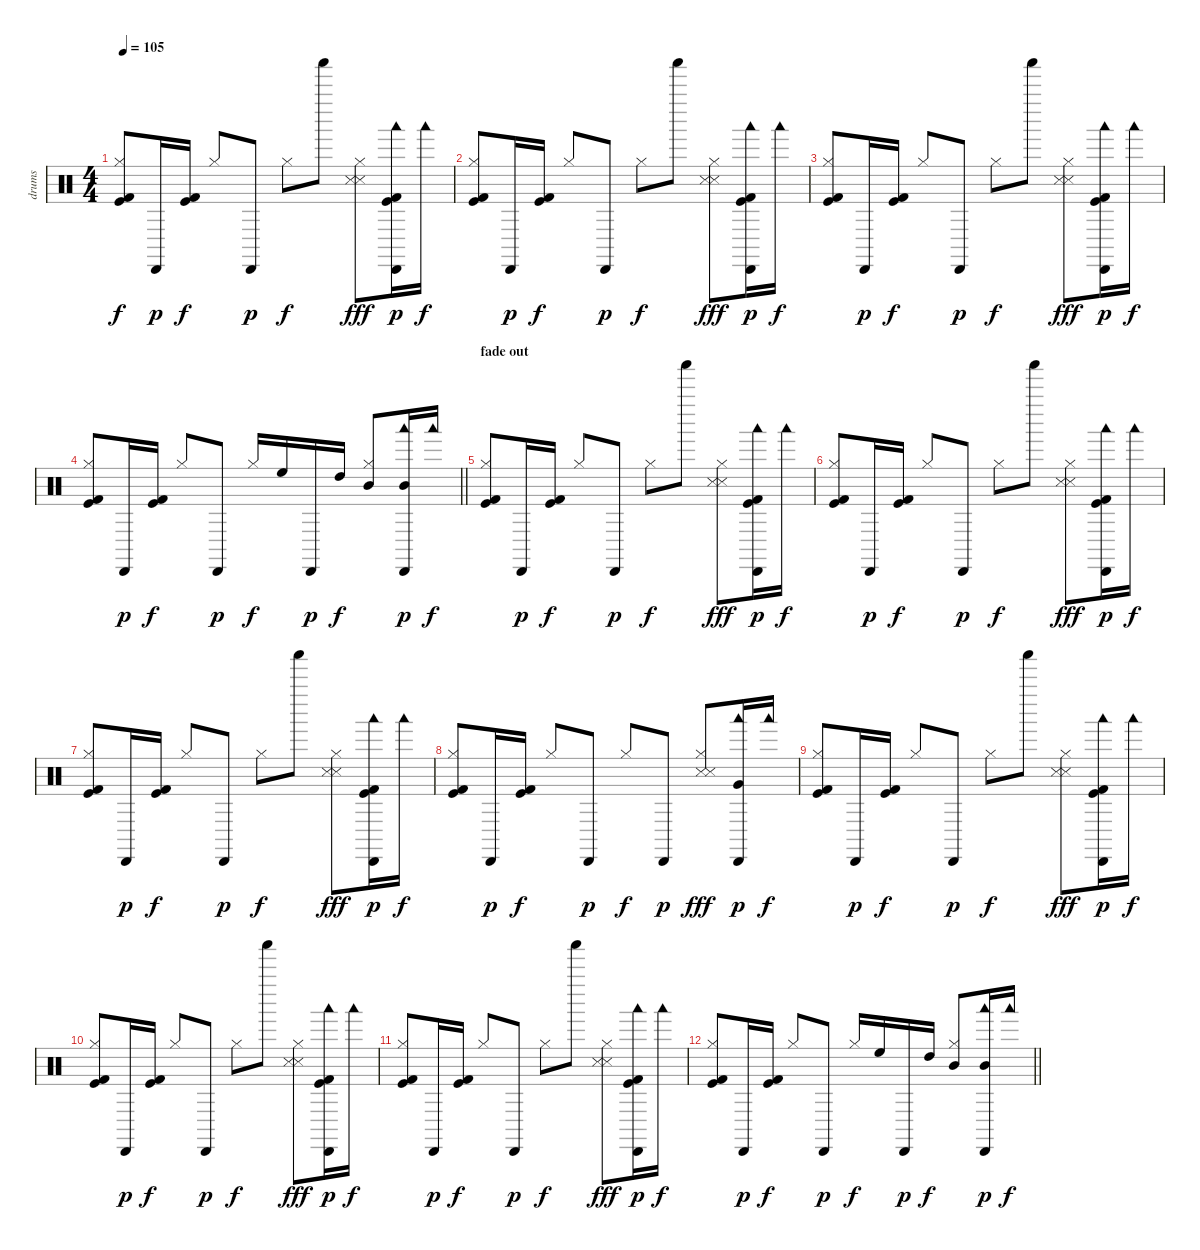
\track ("drums" "drums") {instrument percussion}
\staff {score}
\articulation defaults
\ts (4 4)
\tempo 105
\clef neutral
\ks c
("Hi-Hat (closed)" "Kick (hit)" "Kick (hit) 2").8{dy f} "Cabasa (hit)".16{dy p} ("Kick (hit)" "Kick (hit) 2").16{dy f} "Hi-Hat (closed)".8 "Cabasa (hit)".8{dy p} "Hi-Hat (closed)".8{dy f} "Shaker (hit)".8 ("Hi-Hat (closed)" "Snare (side stick) 3" "Snare (side stick) 3").8{dy fff} ("Cabasa (hit)" "Woodblock low (hit)" "Kick (hit)" "Kick (hit) 2").16{dy p} "Woodblock low (hit)".16{dy f} |
("Hi-Hat (closed)" "Kick (hit)" "Kick (hit) 2").8 "Cabasa (hit)".16{dy p} ("Kick (hit)" "Kick (hit) 2").16{dy f} "Hi-Hat (closed)".8 "Cabasa (hit)".8{dy p} "Hi-Hat (closed)".8{dy f} "Shaker (hit)".8 ("Hi-Hat (closed)" "Snare (side stick) 3" "Snare (side stick) 3").8{dy fff} ("Cabasa (hit)" "Woodblock low (hit)" "Kick (hit)" "Kick (hit) 2").16{dy p} "Woodblock low (hit)".16{dy f} |
("Hi-Hat (closed)" "Kick (hit)" "Kick (hit) 2").8 "Cabasa (hit)".16{dy p} ("Kick (hit)" "Kick (hit) 2").16{dy f} "Hi-Hat (closed)".8 "Cabasa (hit)".8{dy p} "Hi-Hat (closed)".8{dy f} "Shaker (hit)".8 ("Hi-Hat (closed)" "Snare (side stick) 3" "Snare (side stick) 3").8{dy fff} ("Cabasa (hit)" "Woodblock low (hit)" "Kick (hit)" "Kick (hit) 2").16{dy p} "Woodblock low (hit)".16{dy f} |
\barLineRight lightlight
("Hi-Hat (closed)" "Kick (hit)" "Kick (hit) 2").8 "Cabasa (hit)".16{dy p} ("Kick (hit)" "Kick (hit) 2").16{dy f} "Hi-Hat (closed)".8 "Cabasa (hit)".8{dy p} "Hi-Hat (closed)".16{dy f} "High Floor Tom (hit)".16{balance 2} "Cabasa (hit)".16{dy p} "High Tom (hit)".16{dy f} ("Hi-Hat (closed)" "Mid Tom (hit)").8{balance 14} ("Cabasa (hit)" "Woodblock low (hit)" "Mid Tom (hit)").16{dy p} "Woodblock low (hit)".16{dy f} |
\section ("" "fade out")
("Hi-Hat (closed)" "Kick (hit)" "Kick (hit) 2").8{volume 6 balance 8} "Cabasa (hit)".16{dy p} ("Kick (hit)" "Kick (hit) 2").16{dy f} "Hi-Hat (closed)".8 "Cabasa (hit)".8{dy p} "Hi-Hat (closed)".8{dy f} "Shaker (hit)".8 ("Hi-Hat (closed)" "Snare (side stick) 3" "Snare (side stick) 3").8{dy fff} ("Cabasa (hit)" "Woodblock low (hit)" "Kick (hit)" "Kick (hit) 2").16{dy p} "Woodblock low (hit)".16{dy f} |
("Hi-Hat (closed)" "Kick (hit)" "Kick (hit) 2").8 "Cabasa (hit)".16{dy p} ("Kick (hit)" "Kick (hit) 2").16{dy f} "Hi-Hat (closed)".8 "Cabasa (hit)".8{dy p} "Hi-Hat (closed)".8{dy f} "Shaker (hit)".8 ("Hi-Hat (closed)" "Snare (side stick) 3" "Snare (side stick) 3").8{dy fff} ("Cabasa (hit)" "Woodblock low (hit)" "Kick (hit)" "Kick (hit) 2").16{dy p} "Woodblock low (hit)".16{dy f} |
("Hi-Hat (closed)" "Kick (hit)" "Kick (hit) 2").8 "Cabasa (hit)".16{dy p} ("Kick (hit)" "Kick (hit) 2").16{dy f} "Hi-Hat (closed)".8 "Cabasa (hit)".8{dy p} "Hi-Hat (closed)".8{dy f} "Shaker (hit)".8 ("Hi-Hat (closed)" "Snare (side stick) 3" "Snare (side stick) 3").8{dy fff} ("Cabasa (hit)" "Woodblock low (hit)" "Kick (hit)" "Kick (hit) 2").16{dy p} "Woodblock low (hit)".16{dy f} |
("Hi-Hat (closed)" "Kick (hit)" "Kick (hit) 2").8 "Cabasa (hit)".16{dy p} ("Kick (hit)" "Kick (hit) 2").16{dy f} "Hi-Hat (closed)".8 "Cabasa (hit)".8{dy p} "Hi-Hat (closed)".8{dy f} "Cabasa (hit)".8{dy p} ("Hi-Hat (closed)" "Snare (side stick) 3" "Snare (side stick) 3").8{dy fff} ("Cabasa (hit)" "Woodblock low (hit)" "Very Low Tom (hit)").16{dy p} "Woodblock low (hit)".16{dy f} |
("Hi-Hat (closed)" "Kick (hit)" "Kick (hit) 2").8{volume 0} "Cabasa (hit)".16{dy p} ("Kick (hit)" "Kick (hit) 2").16{dy f} "Hi-Hat (closed)".8 "Cabasa (hit)".8{dy p} "Hi-Hat (closed)".8{dy f} "Shaker (hit)".8 ("Hi-Hat (closed)" "Snare (side stick) 3" "Snare (side stick) 3").8{dy fff} ("Cabasa (hit)" "Woodblock low (hit)" "Kick (hit)" "Kick (hit) 2").16{dy p} "Woodblock low (hit)".16{dy f} |
("Hi-Hat (closed)" "Kick (hit)" "Kick (hit) 2").8 "Cabasa (hit)".16{dy p} ("Kick (hit)" "Kick (hit) 2").16{dy f} "Hi-Hat (closed)".8 "Cabasa (hit)".8{dy p} "Hi-Hat (closed)".8{dy f} "Shaker (hit)".8 ("Hi-Hat (closed)" "Snare (side stick) 3" "Snare (side stick) 3").8{dy fff} ("Cabasa (hit)" "Woodblock low (hit)" "Kick (hit)" "Kick (hit) 2").16{dy p} "Woodblock low (hit)".16{dy f} |
("Hi-Hat (closed)" "Kick (hit)" "Kick (hit) 2").8 "Cabasa (hit)".16{dy p} ("Kick (hit)" "Kick (hit) 2").16{dy f} "Hi-Hat (closed)".8 "Cabasa (hit)".8{dy p} "Hi-Hat (closed)".8{dy f} "Shaker (hit)".8 ("Hi-Hat (closed)" "Snare (side stick) 3" "Snare (side stick) 3").8{dy fff} ("Cabasa (hit)" "Woodblock low (hit)" "Kick (hit)" "Kick (hit) 2").16{dy p} "Woodblock low (hit)".16{dy f} |
\barLineRight lightlight
("Hi-Hat (closed)" "Kick (hit)" "Kick (hit) 2").8 "Cabasa (hit)".16{dy p} ("Kick (hit)" "Kick (hit) 2").16{dy f} "Hi-Hat (closed)".8 "Cabasa (hit)".8{dy p} "Hi-Hat (closed)".16{dy f} "High Floor Tom (hit)".16{balance 2} "Cabasa (hit)".16{dy p} "High Tom (hit)".16{dy f} ("Hi-Hat (closed)" "Mid Tom (hit)").8{balance 14} ("Cabasa (hit)" "Woodblock low (hit)" "Mid Tom (hit)").16{dy p} "Woodblock low (hit)".16{dy f}
